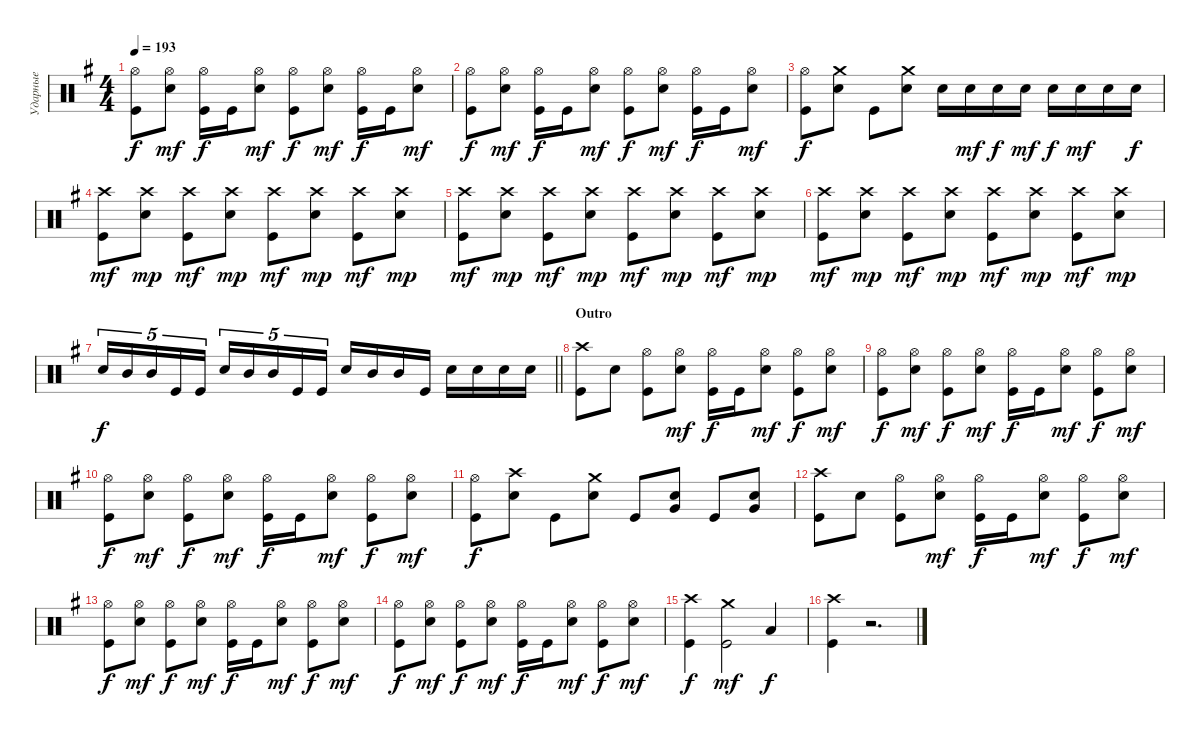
\track ("Ударные" "Ударные") {instrument percussion}
\staff {score}
\articulation defaults
\ts (4 4)
\tempo 193
\clef neutral
\ks eminor
("Kick (hit)" "Hi-Hat (open)").8{dy f} ("Snare (hit) 2" "Hi-Hat (open)").8{dy mf} ("Kick (hit)" "Hi-Hat (open)").16{dy f} "Kick (hit)".16 ("Snare (hit) 2" "Hi-Hat (open)").8{dy mf} ("Kick (hit)" "Hi-Hat (open)").8{dy f} ("Snare (hit) 2" "Hi-Hat (open)").8{dy mf} ("Kick (hit)" "Hi-Hat (open)").16{dy f} "Kick (hit)".16 ("Snare (hit) 2" "Hi-Hat (open)").8{dy mf} |
("Kick (hit)" "Hi-Hat (open)").8{dy f} ("Snare (hit) 2" "Hi-Hat (open)").8{dy mf} ("Kick (hit)" "Hi-Hat (open)").16{dy f} "Kick (hit)".16 ("Snare (hit) 2" "Hi-Hat (open)").8{dy mf} ("Kick (hit)" "Hi-Hat (open)").8{dy f} ("Snare (hit) 2" "Hi-Hat (open)").8{dy mf} ("Kick (hit)" "Hi-Hat (open)").16{dy f} "Kick (hit)".16 ("Snare (hit) 2" "Hi-Hat (open)").8{dy mf} |
("Kick (hit)" "Hi-Hat (open)").8{dy f} ("Snare (hit) 2" "Crash medium (hit)").8 "Kick (hit)".8 ("Snare (hit) 2" "Crash medium (hit)").8 "Snare (hit) 2".16 "Snare (hit) 2".16{dy mf} "Snare (hit) 2".16{dy f} "Snare (hit) 2".16{dy mf} "Snare (hit) 2".16{dy f} "Snare (hit) 2".16{dy mf} "Snare (hit) 2".16 "Snare (hit) 2".16{dy f} |
("Kick (hit)" "Crash high (hit)").8{dy mf} ("Snare (hit) 2" "Crash high (hit)").8{dy mp} ("Kick (hit)" "Crash high (hit)").8{dy mf} ("Snare (hit) 2" "Crash high (hit)").8{dy mp} ("Kick (hit)" "Crash high (hit)").8{dy mf} ("Snare (hit) 2" "Crash high (hit)").8{dy mp} ("Kick (hit)" "Crash high (hit)").8{dy mf} ("Snare (hit) 2" "Crash high (hit)").8{dy mp} |
("Kick (hit)" "Crash high (hit)").8{dy mf} ("Snare (hit) 2" "Crash high (hit)").8{dy mp} ("Kick (hit)" "Crash high (hit)").8{dy mf} ("Snare (hit) 2" "Crash high (hit)").8{dy mp} ("Kick (hit)" "Crash high (hit)").8{dy mf} ("Snare (hit) 2" "Crash high (hit)").8{dy mp} ("Kick (hit)" "Crash high (hit)").8{dy mf} ("Snare (hit) 2" "Crash high (hit)").8{dy mp} |
("Kick (hit)" "Crash high (hit)").8{dy mf} ("Snare (hit) 2" "Crash high (hit)").8{dy mp} ("Kick (hit)" "Crash high (hit)").8{dy mf} ("Snare (hit) 2" "Crash high (hit)").8{dy mp} ("Kick (hit)" "Crash high (hit)").8{dy mf} ("Snare (hit) 2" "Crash high (hit)").8{dy mp} ("Kick (hit)" "Crash high (hit)").8{dy mf} ("Snare (hit) 2" "Crash high (hit)").8{dy mp} |
\barLineRight lightlight "Snare (hit) 2".16{tu (5 4) dy f} "Mid Tom (hit)".16{tu (5 4)} "Mid Tom (hit)".16{tu (5 4)} "Kick (hit)".16{tu (5 4)} "Kick (hit)".16{tu (5 4)} "Snare (hit) 2".16{tu (5 4)} "Mid Tom (hit)".16{tu (5 4)} "Mid Tom (hit)".16{tu (5 4)} "Kick (hit)".16{tu (5 4)} "Kick (hit)".16{tu (5 4)} "Snare (hit) 2".16 "Mid Tom (hit)".16 "Mid Tom (hit)".16 "Kick (hit)".16 "Snare (hit) 2".16 "Snare (hit) 2".16 "Snare (hit) 2".16 "Snare (hit) 2".16
|
\section ("" "Outro")
("Kick (hit)" "Crash high (hit)").8 "Snare (hit) 2".8 ("Kick (hit)" "Hi-Hat (open)").8 ("Snare (hit) 2" "Hi-Hat (open)").8{dy mf} ("Kick (hit)" "Hi-Hat (open)").16{dy f} "Kick (hit)".16 ("Snare (hit) 2" "Hi-Hat (open)").8{dy mf} ("Kick (hit)" "Hi-Hat (open)").8{dy f} ("Snare (hit) 2" "Hi-Hat (open)").8{dy mf} |
("Kick (hit)" "Hi-Hat (open)").8{dy f} ("Snare (hit) 2" "Hi-Hat (open)").8{dy mf} ("Kick (hit)" "Hi-Hat (open)").8{dy f} ("Snare (hit) 2" "Hi-Hat (open)").8{dy mf} ("Kick (hit)" "Hi-Hat (open)").16{dy f} "Kick (hit)".16 ("Snare (hit) 2" "Hi-Hat (open)").8{dy mf} ("Kick (hit)" "Hi-Hat (open)").8{dy f} ("Snare (hit) 2" "Hi-Hat (open)").8{dy mf} |
("Kick (hit)" "Hi-Hat (open)").8{dy f} ("Snare (hit) 2" "Hi-Hat (open)").8{dy mf} ("Kick (hit)" "Hi-Hat (open)").8{dy f} ("Snare (hit) 2" "Hi-Hat (open)").8{dy mf} ("Kick (hit)" "Hi-Hat (open)").16{dy f} "Kick (hit)".16 ("Snare (hit) 2" "Hi-Hat (open)").8{dy mf} ("Kick (hit)" "Hi-Hat (open)").8{dy f} ("Snare (hit) 2" "Hi-Hat (open)").8{dy mf} |
("Kick (hit)" "Hi-Hat (open)").8{dy f} ("Snare (hit) 2" "Crash high (hit)").8 "Kick (hit)".8 ("Snare (hit) 2" "Crash medium (hit)").8 "Kick (hit)".8 ("Snare (hit) 2" "Very Low Tom (hit)").8 "Kick (hit)".8 ("Snare (hit) 2" "Very Low Tom (hit)").8 |
("Kick (hit)" "Crash high (hit)").8 "Snare (hit) 2".8 ("Kick (hit)" "Hi-Hat (open)").8 ("Snare (hit) 2" "Hi-Hat (open)").8{dy mf} ("Kick (hit)" "Hi-Hat (open)").16{dy f} "Kick (hit)".16 ("Snare (hit) 2" "Hi-Hat (open)").8{dy mf} ("Kick (hit)" "Hi-Hat (open)").8{dy f} ("Snare (hit) 2" "Hi-Hat (open)").8{dy mf} |
("Kick (hit)" "Hi-Hat (open)").8{dy f} ("Snare (hit) 2" "Hi-Hat (open)").8{dy mf} ("Kick (hit)" "Hi-Hat (open)").8{dy f} ("Snare (hit) 2" "Hi-Hat (open)").8{dy mf} ("Kick (hit)" "Hi-Hat (open)").16{dy f} "Kick (hit)".16 ("Snare (hit) 2" "Hi-Hat (open)").8{dy mf} ("Kick (hit)" "Hi-Hat (open)").8{dy f} ("Snare (hit) 2" "Hi-Hat (open)").8{dy mf} |
("Kick (hit)" "Hi-Hat (open)").8{dy f} ("Snare (hit) 2" "Hi-Hat (open)").8{dy mf} ("Kick (hit)" "Hi-Hat (open)").8{dy f} ("Snare (hit) 2" "Hi-Hat (open)").8{dy mf} ("Kick (hit)" "Hi-Hat (open)").16{dy f} "Kick (hit)".16 ("Snare (hit) 2" "Hi-Hat (open)").8{dy mf} ("Kick (hit)" "Hi-Hat (open)").8{dy f} ("Snare (hit) 2" "Hi-Hat (open)").8{dy mf} |
("Kick (hit)" "Crash high (hit)").4{dy f} ("Kick (hit)" "Crash medium (hit)").2{dy mf} "Low Tom (hit)".4{dy f} |
("Kick (hit)" "Crash high (hit)").4 r.2{d}
